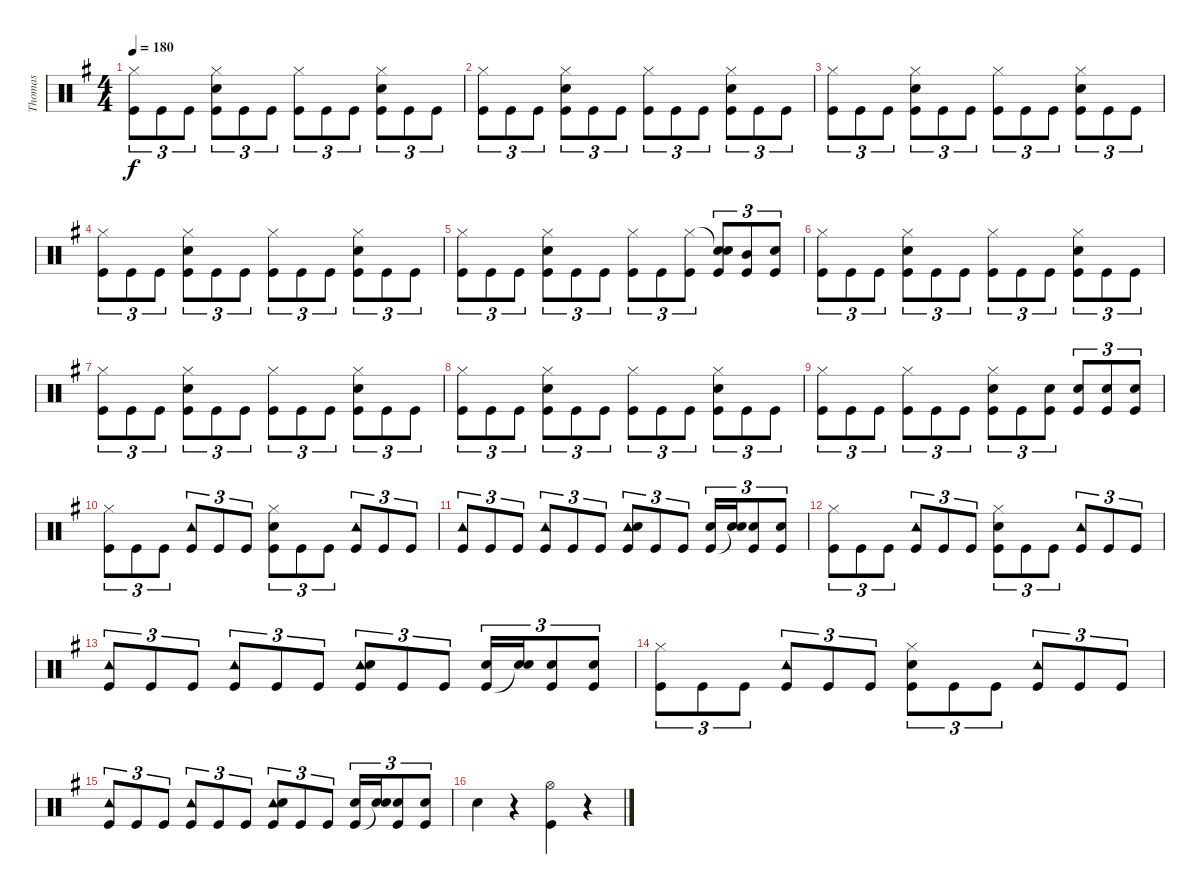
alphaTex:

\track ("Thomas" "Thomas") {instrument percussion}
\staff {score}
\articulation defaults
\ts (4 4)
\tempo 180
\clef neutral
\ks g
("Hi-Hat (closed)" "Kick (hit)").8{tu (3 2) dy f} "Kick (hit)".8{tu (3 2)} "Kick (hit)".8{tu (3 2)} ("Hi-Hat (closed)" "Snare (hit) 2" "Kick (hit)").8{tu (3 2)} "Kick (hit)".8{tu (3 2)} "Kick (hit)".8{tu (3 2)} ("Hi-Hat (closed)" "Kick (hit)").8{tu (3 2)} "Kick (hit)".8{tu (3 2)} "Kick (hit)".8{tu (3 2)} ("Hi-Hat (closed)" "Snare (hit) 2" "Kick (hit)").8{tu (3 2)} "Kick (hit)".8{tu (3 2)} "Kick (hit)".8{tu (3 2)} |
("Hi-Hat (closed)" "Kick (hit)").8{tu (3 2)} "Kick (hit)".8{tu (3 2)} "Kick (hit)".8{tu (3 2)} ("Hi-Hat (closed)" "Snare (hit) 2" "Kick (hit)").8{tu (3 2)} "Kick (hit)".8{tu (3 2)} "Kick (hit)".8{tu (3 2)} ("Hi-Hat (closed)" "Kick (hit)").8{tu (3 2)} "Kick (hit)".8{tu (3 2)} "Kick (hit)".8{tu (3 2)} ("Hi-Hat (closed)" "Snare (hit) 2" "Kick (hit)").8{tu (3 2)} "Kick (hit)".8{tu (3 2)} "Kick (hit)".8{tu (3 2)} |
("Hi-Hat (closed)" "Kick (hit)").8{tu (3 2)} "Kick (hit)".8{tu (3 2)} "Kick (hit)".8{tu (3 2)} ("Hi-Hat (closed)" "Snare (hit) 2" "Kick (hit)").8{tu (3 2)} "Kick (hit)".8{tu (3 2)} "Kick (hit)".8{tu (3 2)} ("Hi-Hat (closed)" "Kick (hit)").8{tu (3 2)} "Kick (hit)".8{tu (3 2)} "Kick (hit)".8{tu (3 2)} ("Hi-Hat (closed)" "Snare (hit) 2" "Kick (hit)").8{tu (3 2)} "Kick (hit)".8{tu (3 2)} "Kick (hit)".8{tu (3 2)} |
("Hi-Hat (closed)" "Kick (hit)").8{tu (3 2)} "Kick (hit)".8{tu (3 2)} "Kick (hit)".8{tu (3 2)} ("Hi-Hat (closed)" "Snare (hit) 2" "Kick (hit)").8{tu (3 2)} "Kick (hit)".8{tu (3 2)} "Kick (hit)".8{tu (3 2)} ("Hi-Hat (closed)" "Kick (hit)").8{tu (3 2)} "Kick (hit)".8{tu (3 2)} "Kick (hit)".8{tu (3 2)} ("Hi-Hat (closed)" "Snare (hit) 2" "Kick (hit)").8{tu (3 2)} "Kick (hit)".8{tu (3 2)} "Kick (hit)".8{tu (3 2)} |
("Hi-Hat (closed)" "Kick (hit)").8{tu (3 2)} "Kick (hit)".8{tu (3 2)} "Kick (hit)".8{tu (3 2)} ("Hi-Hat (closed)" "Snare (hit) 2" "Kick (hit)").8{tu (3 2)} "Kick (hit)".8{tu (3 2)} "Kick (hit)".8{tu (3 2)} ("Hi-Hat (closed)" "Kick (hit)").8{tu (3 2)} "Kick (hit)".8{tu (3 2)} ("Hi-Hat (closed)" "Kick (hit)").8{tu (3 2)} ("Snare (hit)"{t} "Snare (hit) 2" "Kick (hit)").8{tu (3 2)} ("Mid Tom (hit)" "Kick (hit)").8{tu (3 2)} ("Snare (hit) 2" "Kick (hit)").8{tu (3 2)} |
("Hi-Hat (closed)" "Kick (hit)").8{tu (3 2)} "Kick (hit)".8{tu (3 2)} "Kick (hit)".8{tu (3 2)} ("Hi-Hat (closed)" "Snare (hit) 2" "Kick (hit)").8{tu (3 2)} "Kick (hit)".8{tu (3 2)} "Kick (hit)".8{tu (3 2)} ("Hi-Hat (closed)" "Kick (hit)").8{tu (3 2)} "Kick (hit)".8{tu (3 2)} "Kick (hit)".8{tu (3 2)} ("Hi-Hat (closed)" "Snare (hit) 2" "Kick (hit)").8{tu (3 2)} "Kick (hit)".8{tu (3 2)} "Kick (hit)".8{tu (3 2)} |
("Hi-Hat (closed)" "Kick (hit)").8{tu (3 2)} "Kick (hit)".8{tu (3 2)} "Kick (hit)".8{tu (3 2)} ("Hi-Hat (closed)" "Snare (hit) 2" "Kick (hit)").8{tu (3 2)} "Kick (hit)".8{tu (3 2)} "Kick (hit)".8{tu (3 2)} ("Hi-Hat (closed)" "Kick (hit)").8{tu (3 2)} "Kick (hit)".8{tu (3 2)} "Kick (hit)".8{tu (3 2)} ("Hi-Hat (closed)" "Snare (hit) 2" "Kick (hit)").8{tu (3 2)} "Kick (hit)".8{tu (3 2)} "Kick (hit)".8{tu (3 2)} |
("Hi-Hat (closed)" "Kick (hit)").8{tu (3 2)} "Kick (hit)".8{tu (3 2)} "Kick (hit)".8{tu (3 2)} ("Hi-Hat (closed)" "Snare (hit) 2" "Kick (hit)").8{tu (3 2)} "Kick (hit)".8{tu (3 2)} "Kick (hit)".8{tu (3 2)} ("Hi-Hat (closed)" "Kick (hit)").8{tu (3 2)} "Kick (hit)".8{tu (3 2)} "Kick (hit)".8{tu (3 2)} ("Hi-Hat (closed)" "Snare (hit) 2" "Kick (hit)").8{tu (3 2)} "Kick (hit)".8{tu (3 2)} "Kick (hit)".8{tu (3 2)} |
("Hi-Hat (closed)" "Kick (hit)").8{tu (3 2)} "Kick (hit)".8{tu (3 2)} "Kick (hit)".8{tu (3 2)} ("Hi-Hat (closed)" "Kick (hit)").8{tu (3 2)} "Kick (hit)".8{tu (3 2)} "Kick (hit)".8{tu (3 2)} ("Hi-Hat (closed)" "Snare (hit) 2" "Kick (hit)").8{tu (3 2)} "Kick (hit)".8{tu (3 2)} ("Snare (hit) 2" "Kick (hit)").8{tu (3 2)} ("Snare (hit) 2" "Kick (hit)").8{tu (3 2)} ("Snare (hit) 2" "Kick (hit)").8{tu (3 2)} ("Snare (hit) 2" "Kick (hit)").8{tu (3 2)} |
("Hi-Hat (closed)" "Kick (hit)").8{tu (3 2)} "Kick (hit)".8{tu (3 2)} "Kick (hit)".8{tu (3 2)} ("Tambourine (hit)" "Kick (hit)").8{tu (3 2)} "Kick (hit)".8{tu (3 2)} "Kick (hit)".8{tu (3 2)} ("Hi-Hat (closed)" "Snare (hit) 2" "Kick (hit)").8{tu (3 2)} "Kick (hit)".8{tu (3 2)} "Kick (hit)".8{tu (3 2)} ("Tambourine (hit)" "Kick (hit)").8{tu (3 2)} "Kick (hit)".8{tu (3 2)} "Kick (hit)".8{tu (3 2)} |
("Tambourine (hit)" "Kick (hit)").8{tu (3 2)} "Kick (hit)".8{tu (3 2)} "Kick (hit)".8{tu (3 2)} ("Tambourine (hit)" "Kick (hit)").8{tu (3 2)} "Kick (hit)".8{tu (3 2)} "Kick (hit)".8{tu (3 2)} ("Tambourine (hit)" "Snare (hit) 2" "Kick (hit)").8{tu (3 2)} "Kick (hit)".8{tu (3 2)} "Kick (hit)".8{tu (3 2)} ("Snare (hit) 2" "Kick (hit)").16{tu (3 2)} ("Snare (hit) 2" "Snare (hit)"{t}).16{tu (3 2)} ("Snare (hit) 2" "Kick (hit)").8{tu (3 2)} ("Snare (hit) 2" "Kick (hit)").8{tu (3 2)} |
("Hi-Hat (closed)" "Kick (hit)").8{tu (3 2)} "Kick (hit)".8{tu (3 2)} "Kick (hit)".8{tu (3 2)} ("Tambourine (hit)" "Kick (hit)").8{tu (3 2)} "Kick (hit)".8{tu (3 2)} "Kick (hit)".8{tu (3 2)} ("Hi-Hat (closed)" "Snare (hit) 2" "Kick (hit)").8{tu (3 2)} "Kick (hit)".8{tu (3 2)} "Kick (hit)".8{tu (3 2)} ("Tambourine (hit)" "Kick (hit)").8{tu (3 2)} "Kick (hit)".8{tu (3 2)} "Kick (hit)".8{tu (3 2)} |
("Tambourine (hit)" "Kick (hit)").8{tu (3 2)} "Kick (hit)".8{tu (3 2)} "Kick (hit)".8{tu (3 2)} ("Tambourine (hit)" "Kick (hit)").8{tu (3 2)} "Kick (hit)".8{tu (3 2)} "Kick (hit)".8{tu (3 2)} ("Tambourine (hit)" "Snare (hit) 2" "Kick (hit)").8{tu (3 2)} "Kick (hit)".8{tu (3 2)} "Kick (hit)".8{tu (3 2)} ("Snare (hit) 2" "Kick (hit)").16{tu (3 2)} ("Snare (hit) 2" "Snare (hit)"{t}).16{tu (3 2)} ("Snare (hit) 2" "Kick (hit)").8{tu (3 2)} ("Snare (hit) 2" "Kick (hit)").8{tu (3 2)} |
("Hi-Hat (closed)" "Kick (hit)").8{tu (3 2)} "Kick (hit)".8{tu (3 2)} "Kick (hit)".8{tu (3 2)} ("Tambourine (hit)" "Kick (hit)").8{tu (3 2)} "Kick (hit)".8{tu (3 2)} "Kick (hit)".8{tu (3 2)} ("Hi-Hat (closed)" "Snare (hit) 2" "Kick (hit)").8{tu (3 2)} "Kick (hit)".8{tu (3 2)} "Kick (hit)".8{tu (3 2)} ("Tambourine (hit)" "Kick (hit)").8{tu (3 2)} "Kick (hit)".8{tu (3 2)} "Kick (hit)".8{tu (3 2)} |
("Tambourine (hit)" "Kick (hit)").8{tu (3 2)} "Kick (hit)".8{tu (3 2)} "Kick (hit)".8{tu (3 2)} ("Tambourine (hit)" "Kick (hit)").8{tu (3 2)} "Kick (hit)".8{tu (3 2)} "Kick (hit)".8{tu (3 2)} ("Tambourine (hit)" "Snare (hit) 2" "Kick (hit)").8{tu (3 2)} "Kick (hit)".8{tu (3 2)} "Kick (hit)".8{tu (3 2)} ("Snare (hit) 2" "Kick (hit)").16{tu (3 2)} ("Snare (hit) 2" "Snare (hit)"{t}).16{tu (3 2)} ("Snare (hit) 2" "Kick (hit)").8{tu (3 2)} ("Snare (hit) 2" "Kick (hit)").8{tu (3 2)} |
"Snare (hit) 2".4 r.4 ("Hi-Hat (open)" "Kick (hit)").4 r.4
